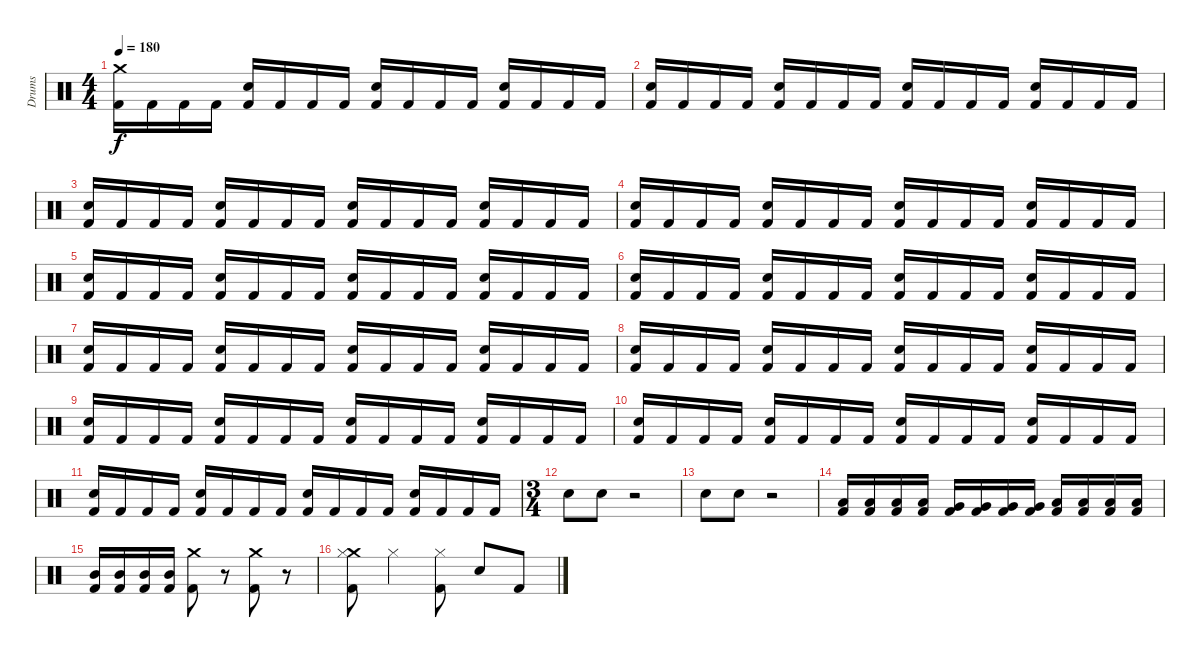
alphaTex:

\track ("Drums" "Drums") {instrument percussion}
\staff {score}
\articulation defaults
\ts (4 4)
\tempo 180
\clef neutral
\ks c
("Crash medium (hit)" "Kick (hit) 2").16{dy f} "Kick (hit) 2".16 "Kick (hit) 2".16 "Kick (hit) 2".16 ("Snare (hit) 2" "Kick (hit) 2").16 "Kick (hit) 2".16 "Kick (hit) 2".16 "Kick (hit) 2".16 ("Snare (hit) 2" "Kick (hit) 2").16 "Kick (hit) 2".16 "Kick (hit) 2".16 "Kick (hit) 2".16 ("Snare (hit) 2" "Kick (hit) 2").16 "Kick (hit) 2".16 "Kick (hit) 2".16 "Kick (hit) 2".16 |
("Snare (hit) 2" "Kick (hit) 2").16 "Kick (hit) 2".16 "Kick (hit) 2".16 "Kick (hit) 2".16 ("Snare (hit) 2" "Kick (hit) 2").16 "Kick (hit) 2".16 "Kick (hit) 2".16 "Kick (hit) 2".16 ("Snare (hit) 2" "Kick (hit) 2").16 "Kick (hit) 2".16 "Kick (hit) 2".16 "Kick (hit) 2".16 ("Snare (hit) 2" "Kick (hit) 2").16 "Kick (hit) 2".16 "Kick (hit) 2".16 "Kick (hit) 2".16 |
("Snare (hit) 2" "Kick (hit) 2").16 "Kick (hit) 2".16 "Kick (hit) 2".16 "Kick (hit) 2".16 ("Snare (hit) 2" "Kick (hit) 2").16 "Kick (hit) 2".16 "Kick (hit) 2".16 "Kick (hit) 2".16 ("Snare (hit) 2" "Kick (hit) 2").16 "Kick (hit) 2".16 "Kick (hit) 2".16 "Kick (hit) 2".16 ("Snare (hit) 2" "Kick (hit) 2").16 "Kick (hit) 2".16 "Kick (hit) 2".16 "Kick (hit) 2".16 |
("Snare (hit) 2" "Kick (hit) 2").16 "Kick (hit) 2".16 "Kick (hit) 2".16 "Kick (hit) 2".16 ("Snare (hit) 2" "Kick (hit) 2").16 "Kick (hit) 2".16 "Kick (hit) 2".16 "Kick (hit) 2".16 ("Snare (hit) 2" "Kick (hit) 2").16 "Kick (hit) 2".16 "Kick (hit) 2".16 "Kick (hit) 2".16 ("Snare (hit) 2" "Kick (hit) 2").16 "Kick (hit) 2".16 "Kick (hit) 2".16 "Kick (hit) 2".16 |
("Snare (hit) 2" "Kick (hit) 2").16 "Kick (hit) 2".16 "Kick (hit) 2".16 "Kick (hit) 2".16 ("Snare (hit) 2" "Kick (hit) 2").16 "Kick (hit) 2".16 "Kick (hit) 2".16 "Kick (hit) 2".16 ("Snare (hit) 2" "Kick (hit) 2").16 "Kick (hit) 2".16 "Kick (hit) 2".16 "Kick (hit) 2".16 ("Snare (hit) 2" "Kick (hit) 2").16 "Kick (hit) 2".16 "Kick (hit) 2".16 "Kick (hit) 2".16 |
("Snare (hit) 2" "Kick (hit) 2").16 "Kick (hit) 2".16 "Kick (hit) 2".16 "Kick (hit) 2".16 ("Snare (hit) 2" "Kick (hit) 2").16 "Kick (hit) 2".16 "Kick (hit) 2".16 "Kick (hit) 2".16 ("Snare (hit) 2" "Kick (hit) 2").16 "Kick (hit) 2".16 "Kick (hit) 2".16 "Kick (hit) 2".16 ("Snare (hit) 2" "Kick (hit) 2").16 "Kick (hit) 2".16 "Kick (hit) 2".16 "Kick (hit) 2".16 |
("Snare (hit) 2" "Kick (hit) 2").16 "Kick (hit) 2".16 "Kick (hit) 2".16 "Kick (hit) 2".16 ("Snare (hit) 2" "Kick (hit) 2").16 "Kick (hit) 2".16 "Kick (hit) 2".16 "Kick (hit) 2".16 ("Snare (hit) 2" "Kick (hit) 2").16 "Kick (hit) 2".16 "Kick (hit) 2".16 "Kick (hit) 2".16 ("Snare (hit) 2" "Kick (hit) 2").16 "Kick (hit) 2".16 "Kick (hit) 2".16 "Kick (hit) 2".16 |
("Snare (hit) 2" "Kick (hit) 2").16 "Kick (hit) 2".16 "Kick (hit) 2".16 "Kick (hit) 2".16 ("Snare (hit) 2" "Kick (hit) 2").16 "Kick (hit) 2".16 "Kick (hit) 2".16 "Kick (hit) 2".16 ("Snare (hit) 2" "Kick (hit) 2").16 "Kick (hit) 2".16 "Kick (hit) 2".16 "Kick (hit) 2".16 ("Snare (hit) 2" "Kick (hit) 2").16 "Kick (hit) 2".16 "Kick (hit) 2".16 "Kick (hit) 2".16 |
("Snare (hit) 2" "Kick (hit) 2").16 "Kick (hit) 2".16 "Kick (hit) 2".16 "Kick (hit) 2".16 ("Snare (hit) 2" "Kick (hit) 2").16 "Kick (hit) 2".16 "Kick (hit) 2".16 "Kick (hit) 2".16 ("Snare (hit) 2" "Kick (hit) 2").16 "Kick (hit) 2".16 "Kick (hit) 2".16 "Kick (hit) 2".16 ("Snare (hit) 2" "Kick (hit) 2").16 "Kick (hit) 2".16 "Kick (hit) 2".16 "Kick (hit) 2".16 |
("Snare (hit) 2" "Kick (hit) 2").16 "Kick (hit) 2".16 "Kick (hit) 2".16 "Kick (hit) 2".16 ("Snare (hit) 2" "Kick (hit) 2").16 "Kick (hit) 2".16 "Kick (hit) 2".16 "Kick (hit) 2".16 ("Snare (hit) 2" "Kick (hit) 2").16 "Kick (hit) 2".16 "Kick (hit) 2".16 "Kick (hit) 2".16 ("Snare (hit) 2" "Kick (hit) 2").16 "Kick (hit) 2".16 "Kick (hit) 2".16 "Kick (hit) 2".16 |
("Snare (hit) 2" "Kick (hit) 2").16 "Kick (hit) 2".16 "Kick (hit) 2".16 "Kick (hit) 2".16 ("Snare (hit) 2" "Kick (hit) 2").16 "Kick (hit) 2".16 "Kick (hit) 2".16 "Kick (hit) 2".16 ("Snare (hit) 2" "Kick (hit) 2").16 "Kick (hit) 2".16 "Kick (hit) 2".16 "Kick (hit) 2".16 ("Snare (hit) 2" "Kick (hit) 2").16 "Kick (hit) 2".16 "Kick (hit) 2".16 "Kick (hit) 2".16 |
\ts (3 4)
"Snare (hit) 2".8 "Snare (hit) 2".8 r.2 |
"Snare (hit) 2".8 "Snare (hit) 2".8 r.2 |
("Low Floor Tom (hit)" "Kick (hit) 2").16 ("Low Floor Tom (hit)" "Kick (hit) 2").16 ("Low Floor Tom (hit)" "Kick (hit) 2").16 ("Low Floor Tom (hit)" "Kick (hit) 2").16 ("Very Low Tom (hit)" "Kick (hit) 2").16 ("Very Low Tom (hit)" "Kick (hit) 2").16 ("Very Low Tom (hit)" "Kick (hit) 2").16 ("Very Low Tom (hit)" "Kick (hit) 2").16 ("Low Tom (hit)" "Kick (hit) 2").16 ("Low Tom (hit)" "Kick (hit) 2").16 ("Low Tom (hit)" "Kick (hit) 2").16 ("Low Tom (hit)" "Kick (hit) 2").16 |
("Mid Tom (hit)" "Kick (hit) 2").16 ("Mid Tom (hit)" "Kick (hit) 2").16 ("Mid Tom (hit)" "Kick (hit) 2").16 ("Mid Tom (hit)" "Kick (hit) 2").16 ("Crash medium (hit)" "Kick (hit) 2").8 r.8 ("Crash medium (hit)" "Kick (hit) 2").8 r.8 |
("Crash medium (hit)" "Hi-Hat (closed)" "Kick (hit) 2").8 "Hi-Hat (closed)".4 ("Hi-Hat (closed)" "Kick (hit) 2").8 "Snare (hit) 2".8 "Kick (hit) 2".8
